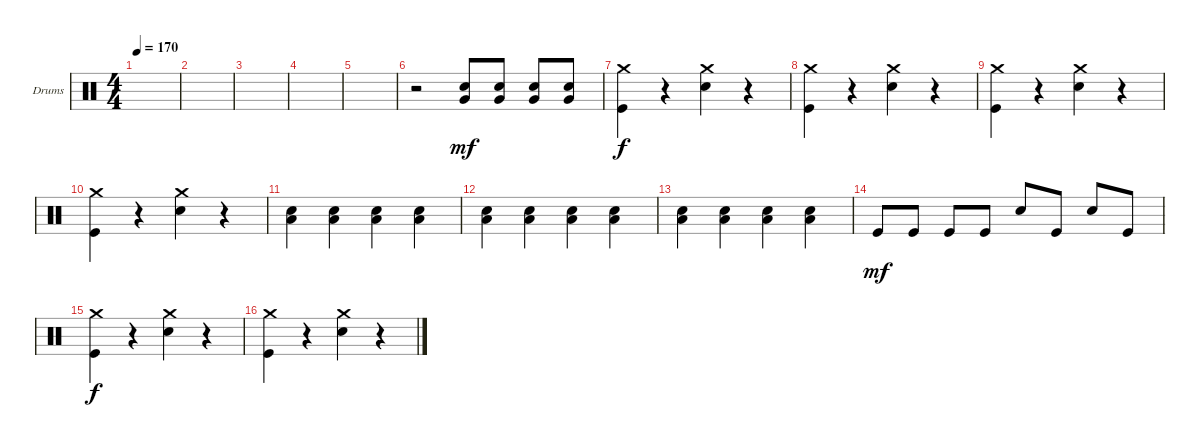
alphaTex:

\defaultSystemsLayout 4
\bracketExtendMode groupsimilarinstruments
\firstSystemTrackNameOrientation horizontal
\otherSystemsTrackNameOrientation horizontal
\track ("Drumkit" "Drums") {instrument percussion}
\staff {score}
\articulation defaults
\ts (4 4)
\tempo 170
\clef neutral
\scale
0.333333
\ks c
|
\scale
0.333333 |
\scale
0.333333 |
\scale
0.333333 |
\scale
0.333333 |
\scale
0.333333 r.2 ("Snare (hit) 2" "Very Low Tom (hit)").8{dy mf} ("Snare (hit) 2" "Very Low Tom (hit)").8 ("Snare (hit) 2" "Very Low Tom (hit)").8 ("Snare (hit) 2" "Very Low Tom (hit)").8 |
\scale
0.333333 ("Crash medium (hit)" "Kick (hit)").4{dy f} r.4 ("Crash medium (hit)" "Snare (hit) 2").4 r.4 |
\scale
0.333333 ("Crash medium (hit)" "Kick (hit)").4 r.4 ("Crash medium (hit)" "Snare (hit) 2").4 r.4 |
\scale
0.333333 ("Crash medium (hit)" "Kick (hit)").4 r.4 ("Crash medium (hit)" "Snare (hit) 2").4 r.4 |
\scale
0.333333 ("Crash medium (hit)" "Kick (hit)").4 r.4 ("Crash medium (hit)" "Snare (hit) 2").4 r.4 |
\scale
0.333333 ("Snare (hit) 2" "Low Tom (hit)").4 ("Snare (hit) 2" "Low Tom (hit)").4 ("Snare (hit) 2" "Low Tom (hit)").4 ("Snare (hit) 2" "Low Tom (hit)").4 |
\scale
0.333333 ("Snare (hit) 2" "Low Tom (hit)").4 ("Snare (hit) 2" "Low Tom (hit)").4 ("Snare (hit) 2" "Low Tom (hit)").4 ("Snare (hit) 2" "Low Tom (hit)").4 |
\scale
0.333333 ("Snare (hit) 2" "Low Tom (hit)").4 ("Snare (hit) 2" "Low Tom (hit)").4 ("Snare (hit) 2" "Low Tom (hit)").4 ("Snare (hit) 2" "Low Tom (hit)").4 |
\scale
0.333333 "Kick (hit)".8{dy mf} "Kick (hit)".8 "Kick (hit)".8 "Kick (hit)".8 "Snare (hit) 2".8 "Kick (hit)".8 "Snare (hit) 2".8 "Kick (hit)".8 |
\scale
0.333333 ("Crash medium (hit)" "Kick (hit)").4{dy f} r.4 ("Crash medium (hit)" "Snare (hit) 2").4 r.4 |
\scale
0.333333 ("Crash medium (hit)" "Kick (hit)").4 r.4 ("Crash medium (hit)" "Snare (hit) 2").4 r.4
